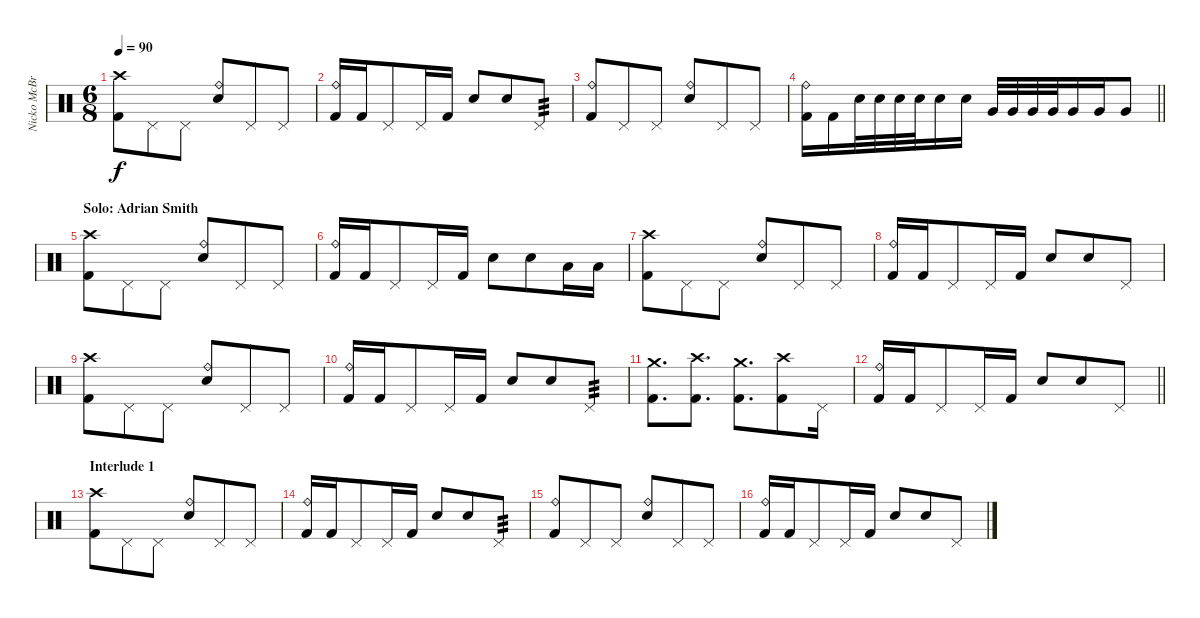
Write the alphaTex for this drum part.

\track ("Nicko McBrain" "Nicko McBr") {instrument percussion}
\staff {score}
\articulation defaults
\ts (6 8)
\tempo 90
\clef neutral
\ks c
("Crash high (hit)" "Kick (hit) 2").8{dy f} "Pedal Hi-Hat (hit)".8 "Pedal Hi-Hat (hit)".8 ("Ride (bell)" "Electric Snare (hit)").8 "Pedal Hi-Hat (hit)".8 "Pedal Hi-Hat (hit)".8 |
("Ride (bell)" "Kick (hit) 2").16 "Kick (hit) 2".16 "Pedal Hi-Hat (hit)".8 "Pedal Hi-Hat (hit)".16 "Kick (hit) 2".16 "Electric Snare (hit)".8 "Electric Snare (hit)".8 "Pedal Hi-Hat (hit)".8{tp 3} |
("Ride (bell)" "Kick (hit) 2").8 "Pedal Hi-Hat (hit)".8 "Pedal Hi-Hat (hit)".8 ("Ride (bell)" "Electric Snare (hit)").8 "Pedal Hi-Hat (hit)".8 "Pedal Hi-Hat (hit)".8 |
\barLineRight lightlight
("Ride (bell)" "Kick (hit) 2").16 "Kick (hit) 2".16 "Electric Snare (hit)".32 "Electric Snare (hit)".32 "Electric Snare (hit)".32 "Electric Snare (hit)".32 "Electric Snare (hit)".16 "Electric Snare (hit)".16 "Very Low Tom (hit)".32 "Very Low Tom (hit)".32 "Very Low Tom (hit)".32 "Very Low Tom (hit)".32 "Very Low Tom (hit)".16 "Very Low Tom (hit)".16 "Very Low Tom (hit)".8 |
\section ("" "Solo: Adrian Smith")
("Crash high (hit)" "Kick (hit) 2").8 "Pedal Hi-Hat (hit)".8 "Pedal Hi-Hat (hit)".8 ("Ride (bell)" "Electric Snare (hit)").8 "Pedal Hi-Hat (hit)".8 "Pedal Hi-Hat (hit)".8 |
("Ride (bell)" "Kick (hit) 2").16 "Kick (hit) 2".16 "Pedal Hi-Hat (hit)".8 "Pedal Hi-Hat (hit)".16 "Kick (hit) 2".16 "Electric Snare (hit)".8 "Electric Snare (hit)".8 "Low Floor Tom (hit)".16 "Low Floor Tom (hit)".16 |
("Crash high (hit)" "Kick (hit) 2").8 "Pedal Hi-Hat (hit)".8 "Pedal Hi-Hat (hit)".8 ("Ride (bell)" "Electric Snare (hit)").8 "Pedal Hi-Hat (hit)".8 "Pedal Hi-Hat (hit)".8 |
("Ride (bell)" "Kick (hit) 2").16 "Kick (hit) 2".16 "Pedal Hi-Hat (hit)".8 "Pedal Hi-Hat (hit)".16 "Kick (hit) 2".16 "Electric Snare (hit)".8 "Electric Snare (hit)".8 "Pedal Hi-Hat (hit)".8 |
("Crash high (hit)" "Kick (hit) 2").8 "Pedal Hi-Hat (hit)".8 "Pedal Hi-Hat (hit)".8 ("Ride (bell)" "Electric Snare (hit)").8 "Pedal Hi-Hat (hit)".8 "Pedal Hi-Hat (hit)".8 |
("Ride (bell)" "Kick (hit) 2").16 "Kick (hit) 2".16 "Pedal Hi-Hat (hit)".8 "Pedal Hi-Hat (hit)".16 "Kick (hit) 2".16 "Electric Snare (hit)".8 "Electric Snare (hit)".8 "Pedal Hi-Hat (hit)".8{tp 3} |
("Crash medium (hit)" "Kick (hit) 2").8{d} ("Crash high (hit)" "Kick (hit) 2").8{d} ("Crash medium (hit)" "Kick (hit) 2").8{d} ("Crash high (hit)" "Kick (hit) 2").8 "Pedal Hi-Hat (hit)".16 |
\barLineRight lightlight
("Ride (bell)" "Kick (hit) 2").16 "Kick (hit) 2".16 "Pedal Hi-Hat (hit)".8 "Pedal Hi-Hat (hit)".16 "Kick (hit) 2".16 "Electric Snare (hit)".8 "Electric Snare (hit)".8 "Pedal Hi-Hat (hit)".8 |
\section ("" "Interlude 1")
("Crash high (hit)" "Kick (hit) 2").8 "Pedal Hi-Hat (hit)".8 "Pedal Hi-Hat (hit)".8 ("Ride (bell)" "Electric Snare (hit)").8 "Pedal Hi-Hat (hit)".8 "Pedal Hi-Hat (hit)".8 |
("Ride (bell)" "Kick (hit) 2").16 "Kick (hit) 2".16 "Pedal Hi-Hat (hit)".8 "Pedal Hi-Hat (hit)".16 "Kick (hit) 2".16 "Electric Snare (hit)".8 "Electric Snare (hit)".8 "Pedal Hi-Hat (hit)".8{tp 3} |
("Ride (bell)" "Kick (hit) 2").8 "Pedal Hi-Hat (hit)".8 "Pedal Hi-Hat (hit)".8 ("Ride (bell)" "Electric Snare (hit)").8 "Pedal Hi-Hat (hit)".8 "Pedal Hi-Hat (hit)".8 |
("Ride (bell)" "Kick (hit) 2").16 "Kick (hit) 2".16 "Pedal Hi-Hat (hit)".8 "Pedal Hi-Hat (hit)".16 "Kick (hit) 2".16 "Electric Snare (hit)".8 "Electric Snare (hit)".8 "Pedal Hi-Hat (hit)".8
